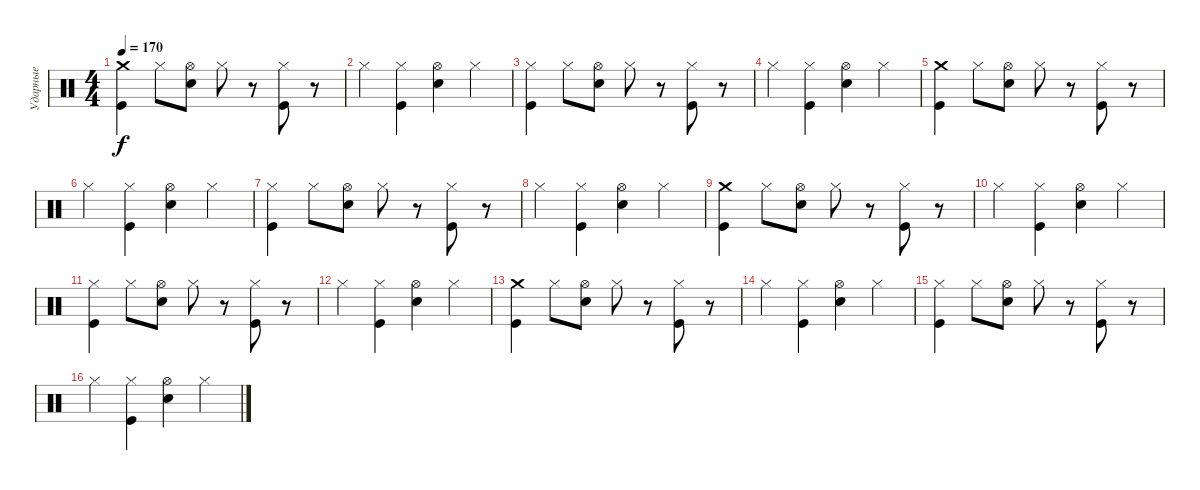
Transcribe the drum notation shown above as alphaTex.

\track ("Ударные" "Ударные") {instrument percussion}
\staff {score}
\articulation defaults
\ts (4 4)
\tempo 170
\clef neutral
\ks c
("Kick (hit)" "Crash medium (hit)").4{dy f} "Hi-Hat (closed)".8 ("Snare (hit) 2" "Hi-Hat (open)").8 "Hi-Hat (closed)".8 r.8 ("Kick (hit)" "Hi-Hat (closed)").8 r.8 |
"Hi-Hat (closed)".4 ("Kick (hit)" "Hi-Hat (closed)").4 ("Snare (hit) 2" "Hi-Hat (open)").4 "Hi-Hat (closed)".4 |
("Kick (hit)" "Hi-Hat (closed)").4 "Hi-Hat (closed)".8 ("Snare (hit) 2" "Hi-Hat (open)").8 "Hi-Hat (closed)".8 r.8 ("Kick (hit)" "Hi-Hat (closed)").8 r.8 |
"Hi-Hat (closed)".4 ("Kick (hit)" "Hi-Hat (closed)").4 ("Snare (hit) 2" "Hi-Hat (open)").4 "Hi-Hat (closed)".4 |
("Kick (hit)" "Crash medium (hit)").4 "Hi-Hat (closed)".8 ("Snare (hit) 2" "Hi-Hat (open)").8 "Hi-Hat (closed)".8 r.8 ("Kick (hit)" "Hi-Hat (closed)").8 r.8 |
"Hi-Hat (closed)".4 ("Kick (hit)" "Hi-Hat (closed)").4 ("Snare (hit) 2" "Hi-Hat (open)").4 "Hi-Hat (closed)".4 |
("Kick (hit)" "Hi-Hat (closed)").4 "Hi-Hat (closed)".8 ("Snare (hit) 2" "Hi-Hat (open)").8 "Hi-Hat (closed)".8 r.8 ("Kick (hit)" "Hi-Hat (closed)").8 r.8 |
"Hi-Hat (closed)".4 ("Kick (hit)" "Hi-Hat (closed)").4 ("Snare (hit) 2" "Hi-Hat (open)").4 "Hi-Hat (closed)".4 |
("Kick (hit)" "Crash medium (hit)").4{volume 6} "Hi-Hat (closed)".8 ("Snare (hit) 2" "Hi-Hat (open)").8 "Hi-Hat (closed)".8 r.8 ("Kick (hit)" "Hi-Hat (closed)").8 r.8 |
"Hi-Hat (closed)".4 ("Kick (hit)" "Hi-Hat (closed)").4 ("Snare (hit) 2" "Hi-Hat (open)").4 "Hi-Hat (closed)".4 |
("Kick (hit)" "Hi-Hat (closed)").4 "Hi-Hat (closed)".8 ("Snare (hit) 2" "Hi-Hat (open)").8 "Hi-Hat (closed)".8 r.8 ("Kick (hit)" "Hi-Hat (closed)").8 r.8 |
"Hi-Hat (closed)".4 ("Kick (hit)" "Hi-Hat (closed)").4 ("Snare (hit) 2" "Hi-Hat (open)").4 "Hi-Hat (closed)".4 |
("Kick (hit)" "Crash medium (hit)").4 "Hi-Hat (closed)".8 ("Snare (hit) 2" "Hi-Hat (open)").8 "Hi-Hat (closed)".8 r.8 ("Kick (hit)" "Hi-Hat (closed)").8 r.8 |
"Hi-Hat (closed)".4{volume 0} ("Kick (hit)" "Hi-Hat (closed)").4 ("Snare (hit) 2" "Hi-Hat (open)").4 "Hi-Hat (closed)".4 |
("Kick (hit)" "Hi-Hat (closed)").4 "Hi-Hat (closed)".8 ("Snare (hit) 2" "Hi-Hat (open)").8 "Hi-Hat (closed)".8 r.8 ("Kick (hit)" "Hi-Hat (closed)").8 r.8 |
"Hi-Hat (closed)".4 ("Kick (hit)" "Hi-Hat (closed)").4 ("Snare (hit) 2" "Hi-Hat (open)").4 "Hi-Hat (closed)".4
